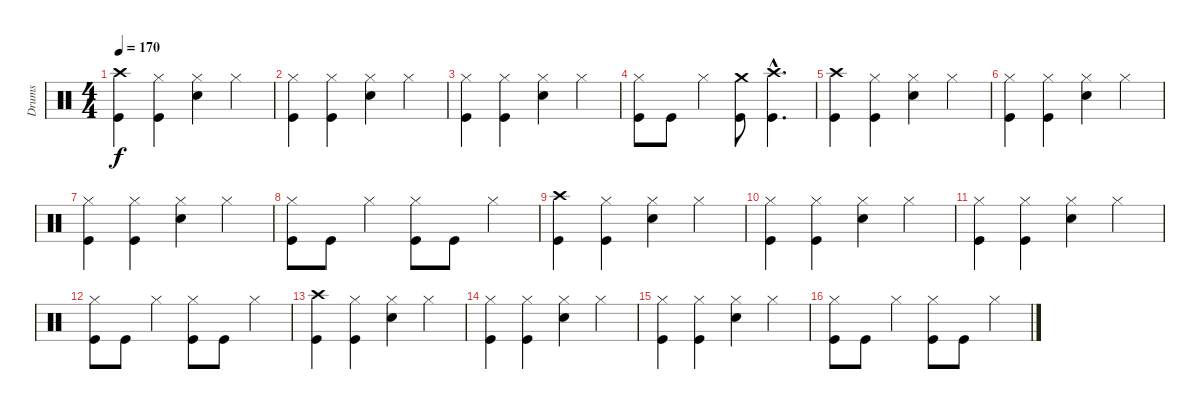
\track ("Drums" "Drums") {instrument percussion}
\staff {score}
\articulation defaults
\ts (4 4)
\tempo 170
\clef neutral
\ks c
("Crash high (hit)" "Kick (hit)").4{dy f} ("Hi-Hat (closed)" "Kick (hit)").4 ("Hi-Hat (closed)" "Snare (hit) 2").4 "Hi-Hat (closed)".4 |
("Hi-Hat (closed)" "Kick (hit)").4 ("Hi-Hat (closed)" "Kick (hit)").4 ("Hi-Hat (closed)" "Snare (hit) 2").4 "Hi-Hat (closed)".4 |
("Hi-Hat (closed)" "Kick (hit)").4 ("Hi-Hat (closed)" "Kick (hit)").4 ("Hi-Hat (closed)" "Snare (hit) 2").4 "Hi-Hat (closed)".4 |
("Hi-Hat (closed)" "Kick (hit)").8 "Kick (hit)".8 "Hi-Hat (closed)".4 ("Crash medium (hit)" "Kick (hit)").8 ("Crash high (hit)"{hac} "Kick (hit)"{hac}).4{d} |
("Crash high (hit)" "Kick (hit)").4 ("Hi-Hat (closed)" "Kick (hit)").4 ("Hi-Hat (closed)" "Snare (hit) 2").4 "Hi-Hat (closed)".4 |
("Hi-Hat (closed)" "Kick (hit)").4 ("Hi-Hat (closed)" "Kick (hit)").4 ("Hi-Hat (closed)" "Snare (hit) 2").4 "Hi-Hat (closed)".4 |
("Hi-Hat (closed)" "Kick (hit)").4 ("Hi-Hat (closed)" "Kick (hit)").4 ("Hi-Hat (closed)" "Snare (hit) 2").4 "Hi-Hat (closed)".4 |
("Hi-Hat (closed)" "Kick (hit)").8 "Kick (hit)".8 "Hi-Hat (closed)".4 ("Hi-Hat (closed)" "Kick (hit)").8 "Kick (hit)".8 "Hi-Hat (closed)".4 |
("Crash high (hit)" "Kick (hit)").4 ("Hi-Hat (closed)" "Kick (hit)").4 ("Hi-Hat (closed)" "Snare (hit) 2").4 "Hi-Hat (closed)".4 |
("Hi-Hat (closed)" "Kick (hit)").4 ("Hi-Hat (closed)" "Kick (hit)").4 ("Hi-Hat (closed)" "Snare (hit) 2").4 "Hi-Hat (closed)".4 |
("Hi-Hat (closed)" "Kick (hit)").4 ("Hi-Hat (closed)" "Kick (hit)").4 ("Hi-Hat (closed)" "Snare (hit) 2").4 "Hi-Hat (closed)".4 |
("Hi-Hat (closed)" "Kick (hit)").8 "Kick (hit)".8 "Hi-Hat (closed)".4 ("Hi-Hat (closed)" "Kick (hit)").8 "Kick (hit)".8 "Hi-Hat (closed)".4 |
("Crash high (hit)" "Kick (hit)").4 ("Hi-Hat (closed)" "Kick (hit)").4 ("Hi-Hat (closed)" "Snare (hit) 2").4 "Hi-Hat (closed)".4 |
("Hi-Hat (closed)" "Kick (hit)").4 ("Hi-Hat (closed)" "Kick (hit)").4 ("Hi-Hat (closed)" "Snare (hit) 2").4 "Hi-Hat (closed)".4 |
("Hi-Hat (closed)" "Kick (hit)").4 ("Hi-Hat (closed)" "Kick (hit)").4 ("Hi-Hat (closed)" "Snare (hit) 2").4 "Hi-Hat (closed)".4 |
("Hi-Hat (closed)" "Kick (hit)").8 "Kick (hit)".8 "Hi-Hat (closed)".4 ("Hi-Hat (closed)" "Kick (hit)").8 "Kick (hit)".8 "Hi-Hat (closed)".4
